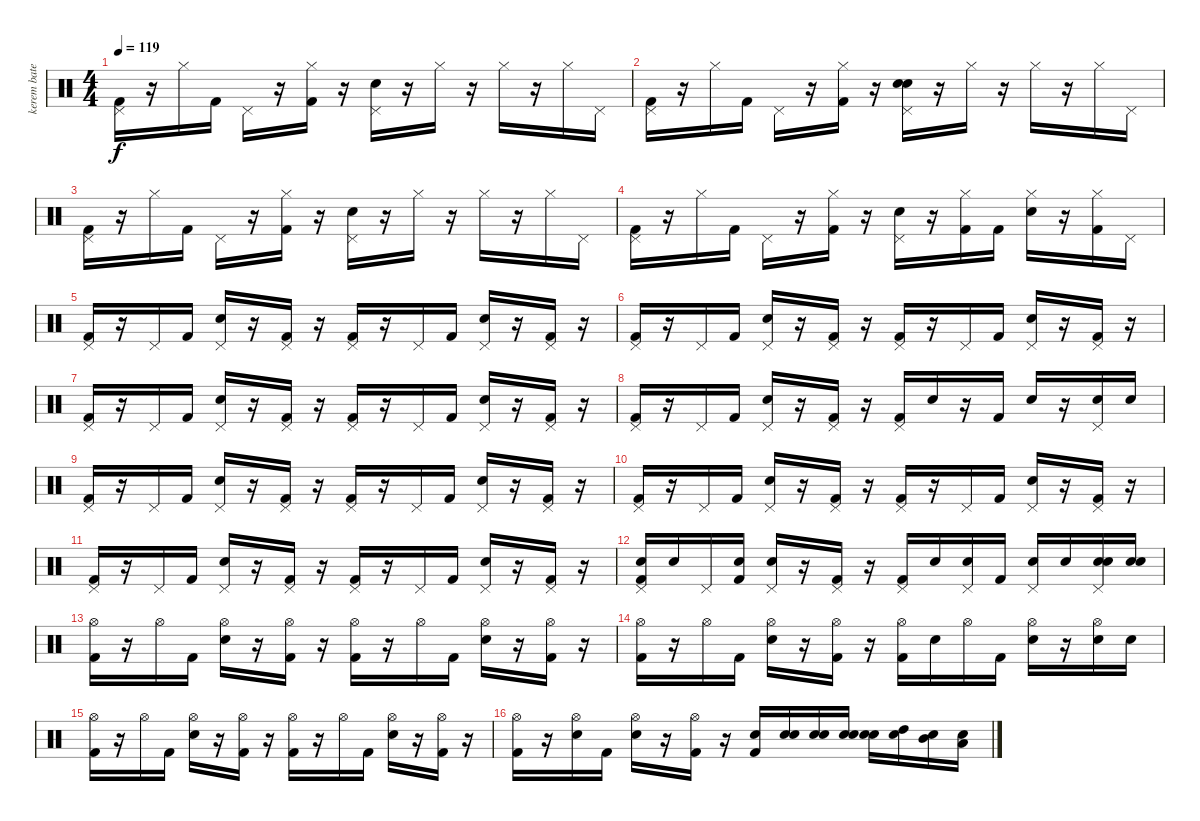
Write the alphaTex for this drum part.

\track ("kerem bateri" "kerem bate") {instrument percussion}
\staff {score}
\articulation defaults
\ts (4 4)
\tempo 119
\clef neutral
\ks c
("Pedal Hi-Hat (hit)" "Kick (hit) 2").16{dy f} r.16 "Hi-Hat (closed)".16 "Kick (hit) 2".16 "Pedal Hi-Hat (hit)".16 r.16 ("Hi-Hat (closed)" "Kick (hit) 2").16 r.16 ("Pedal Hi-Hat (hit)" "Electric Snare (hit)").16 r.16 "Hi-Hat (closed)".16 r.16 "Hi-Hat (closed)".16 r.16 "Hi-Hat (closed)".16 "Pedal Hi-Hat (hit)".16 |
("Pedal Hi-Hat (hit)" "Kick (hit) 2").16 r.16 "Hi-Hat (closed)".16 "Kick (hit) 2".16 "Pedal Hi-Hat (hit)".16 r.16 ("Hi-Hat (closed)" "Kick (hit) 2").16 r.16 ("Pedal Hi-Hat (hit)" "Electric Snare (hit)" "Snare (hit) 2").16 r.16 "Hi-Hat (closed)".16 r.16 "Hi-Hat (closed)".16 r.16 "Hi-Hat (closed)".16 "Pedal Hi-Hat (hit)".16 |
("Pedal Hi-Hat (hit)" "Kick (hit) 2").16 r.16 "Hi-Hat (closed)".16 "Kick (hit) 2".16 "Pedal Hi-Hat (hit)".16 r.16 ("Hi-Hat (closed)" "Kick (hit) 2").16 r.16 ("Pedal Hi-Hat (hit)" "Electric Snare (hit)").16 r.16 "Hi-Hat (closed)".16 r.16 "Hi-Hat (closed)".16 r.16 "Hi-Hat (closed)".16 "Pedal Hi-Hat (hit)".16 |
("Pedal Hi-Hat (hit)" "Kick (hit) 2").16 r.16 "Hi-Hat (closed)".16 "Kick (hit) 2".16 "Pedal Hi-Hat (hit)".16 r.16 ("Hi-Hat (closed)" "Kick (hit) 2").16 r.16 ("Pedal Hi-Hat (hit)" "Electric Snare (hit)").16 r.16 ("Hi-Hat (closed)" "Kick (hit) 2").16 "Kick (hit) 2".16 ("Hi-Hat (closed)" "Electric Snare (hit)").16 r.16 ("Hi-Hat (closed)" "Kick (hit) 2").16 "Pedal Hi-Hat (hit)".16 |
("Kick (hit) 2" "Pedal Hi-Hat (hit)").16 r.16 "Pedal Hi-Hat (hit)".16 "Kick (hit) 2".16 ("Electric Snare (hit)" "Pedal Hi-Hat (hit)").16 r.16 ("Kick (hit) 2" "Pedal Hi-Hat (hit)").16 r.16 ("Kick (hit) 2" "Pedal Hi-Hat (hit)").16 r.16 "Pedal Hi-Hat (hit)".16 "Kick (hit) 2".16 ("Electric Snare (hit)" "Pedal Hi-Hat (hit)").16 r.16 ("Kick (hit) 2" "Pedal Hi-Hat (hit)").16 r.16 |
("Kick (hit) 2" "Pedal Hi-Hat (hit)").16 r.16 "Pedal Hi-Hat (hit)".16 "Kick (hit) 2".16 ("Electric Snare (hit)" "Pedal Hi-Hat (hit)").16 r.16 ("Kick (hit) 2" "Pedal Hi-Hat (hit)").16 r.16 ("Kick (hit) 2" "Pedal Hi-Hat (hit)").16 r.16 "Pedal Hi-Hat (hit)".16 "Kick (hit) 2".16 ("Electric Snare (hit)" "Pedal Hi-Hat (hit)").16 r.16 ("Kick (hit) 2" "Pedal Hi-Hat (hit)").16 r.16 |
("Kick (hit) 2" "Pedal Hi-Hat (hit)").16 r.16 "Pedal Hi-Hat (hit)".16 "Kick (hit) 2".16 ("Electric Snare (hit)" "Pedal Hi-Hat (hit)").16 r.16 ("Kick (hit) 2" "Pedal Hi-Hat (hit)").16 r.16 ("Kick (hit) 2" "Pedal Hi-Hat (hit)").16 r.16 "Pedal Hi-Hat (hit)".16 "Kick (hit) 2".16 ("Electric Snare (hit)" "Pedal Hi-Hat (hit)").16 r.16 ("Kick (hit) 2" "Pedal Hi-Hat (hit)").16 r.16 |
("Kick (hit) 2" "Pedal Hi-Hat (hit)").16 r.16 "Pedal Hi-Hat (hit)".16 "Kick (hit) 2".16 ("Electric Snare (hit)" "Pedal Hi-Hat (hit)").16 r.16 ("Kick (hit) 2" "Pedal Hi-Hat (hit)").16 r.16 ("Kick (hit) 2" "Pedal Hi-Hat (hit)").16 "Electric Snare (hit)".16 r.16 "Kick (hit) 2".16 "Electric Snare (hit)".16 r.16 ("Electric Snare (hit)" "Pedal Hi-Hat (hit)").16 "Electric Snare (hit)".16 |
("Kick (hit) 2" "Pedal Hi-Hat (hit)").16 r.16 "Pedal Hi-Hat (hit)".16 "Kick (hit) 2".16 ("Electric Snare (hit)" "Pedal Hi-Hat (hit)").16 r.16 ("Kick (hit) 2" "Pedal Hi-Hat (hit)").16 r.16 ("Kick (hit) 2" "Pedal Hi-Hat (hit)").16 r.16 "Pedal Hi-Hat (hit)".16 "Kick (hit) 2".16 ("Electric Snare (hit)" "Pedal Hi-Hat (hit)").16 r.16 ("Kick (hit) 2" "Pedal Hi-Hat (hit)").16 r.16 |
("Kick (hit) 2" "Pedal Hi-Hat (hit)").16 r.16 "Pedal Hi-Hat (hit)".16 "Kick (hit) 2".16 ("Electric Snare (hit)" "Pedal Hi-Hat (hit)").16 r.16 ("Kick (hit) 2" "Pedal Hi-Hat (hit)").16 r.16 ("Kick (hit) 2" "Pedal Hi-Hat (hit)").16 r.16 "Pedal Hi-Hat (hit)".16 "Kick (hit) 2".16 ("Electric Snare (hit)" "Pedal Hi-Hat (hit)").16 r.16 ("Kick (hit) 2" "Pedal Hi-Hat (hit)").16 r.16 |
("Kick (hit) 2" "Pedal Hi-Hat (hit)").16 r.16 "Pedal Hi-Hat (hit)".16 "Kick (hit) 2".16 ("Electric Snare (hit)" "Pedal Hi-Hat (hit)").16 r.16 ("Kick (hit) 2" "Pedal Hi-Hat (hit)").16 r.16 ("Kick (hit) 2" "Pedal Hi-Hat (hit)").16 r.16 "Pedal Hi-Hat (hit)".16 "Kick (hit) 2".16 ("Electric Snare (hit)" "Pedal Hi-Hat (hit)").16 r.16 ("Kick (hit) 2" "Pedal Hi-Hat (hit)").16 r.16 |
("Snare (hit) 2" "Kick (hit) 2" "Pedal Hi-Hat (hit)").16 "Electric Snare (hit)".16 "Pedal Hi-Hat (hit)".16 ("Snare (hit) 2" "Kick (hit) 2").16 ("Electric Snare (hit)" "Pedal Hi-Hat (hit)").16 r.16 ("Kick (hit) 2" "Pedal Hi-Hat (hit)").16 r.16 ("Kick (hit) 2" "Pedal Hi-Hat (hit)").16 "Electric Snare (hit)".16 ("Snare (hit) 2" "Pedal Hi-Hat (hit)").16 "Kick (hit) 2".16 ("Electric Snare (hit)" "Pedal Hi-Hat (hit)").16 "Snare (hit) 2".16 ("Snare (hit) 2" "Electric Snare (hit)" "Pedal Hi-Hat (hit)").16 ("Snare (hit) 2" "Electric Snare (hit)").16 |
("Kick (hit) 2" "Hi-Hat (open)").16{volume 12} r.16 "Hi-Hat (open)".16 "Kick (hit) 2".16 ("Electric Snare (hit)" "Hi-Hat (open)").16 r.16 ("Kick (hit) 2" "Hi-Hat (open)").16 r.16 ("Kick (hit) 2" "Hi-Hat (open)").16 r.16 "Hi-Hat (open)".16 "Kick (hit) 2".16 ("Electric Snare (hit)" "Hi-Hat (open)").16 r.16 ("Kick (hit) 2" "Hi-Hat (open)").16 r.16 |
("Kick (hit) 2" "Hi-Hat (open)").16 r.16 "Hi-Hat (open)".16 "Kick (hit) 2".16 ("Electric Snare (hit)" "Hi-Hat (open)").16 r.16 ("Kick (hit) 2" "Hi-Hat (open)").16 r.16 ("Kick (hit) 2" "Hi-Hat (open)").16 "Electric Snare (hit)".16 "Hi-Hat (open)".16 "Kick (hit) 2".16 ("Electric Snare (hit)" "Hi-Hat (open)").16 r.16 ("Electric Snare (hit)" "Hi-Hat (open)").16 "Electric Snare (hit)".16 |
("Kick (hit) 2" "Hi-Hat (open)").16 r.16 "Hi-Hat (open)".16 "Kick (hit) 2".16 ("Electric Snare (hit)" "Hi-Hat (open)").16 r.16 ("Kick (hit) 2" "Hi-Hat (open)").16 r.16 ("Kick (hit) 2" "Hi-Hat (open)").16 r.16 "Hi-Hat (open)".16 "Kick (hit) 2".16 ("Electric Snare (hit)" "Hi-Hat (open)").16 r.16 ("Kick (hit) 2" "Hi-Hat (open)").16 r.16 |
("Kick (hit) 2" "Hi-Hat (open)").16 r.16 ("Snare (hit) 2" "Hi-Hat (open)").16 "Kick (hit) 2".16 ("Electric Snare (hit)" "Hi-Hat (open)").16 r.16 ("Kick (hit) 2" "Hi-Hat (open)").16 r.16 ("Snare (hit) 2" "Kick (hit) 2").16 ("Snare (hit) 2" "Electric Snare (hit)").16 ("Snare (hit) 2" "Electric Snare (hit)").16 ("Snare (hit) 2" "Electric Snare (hit)").16 ("Snare (hit) 2" "Electric Snare (hit)").16 ("Snare (hit) 2" "High Tom (hit)").16 ("Snare (hit) 2" "Mid Tom (hit)").16 ("Snare (hit) 2" "Low Tom (hit)").16
